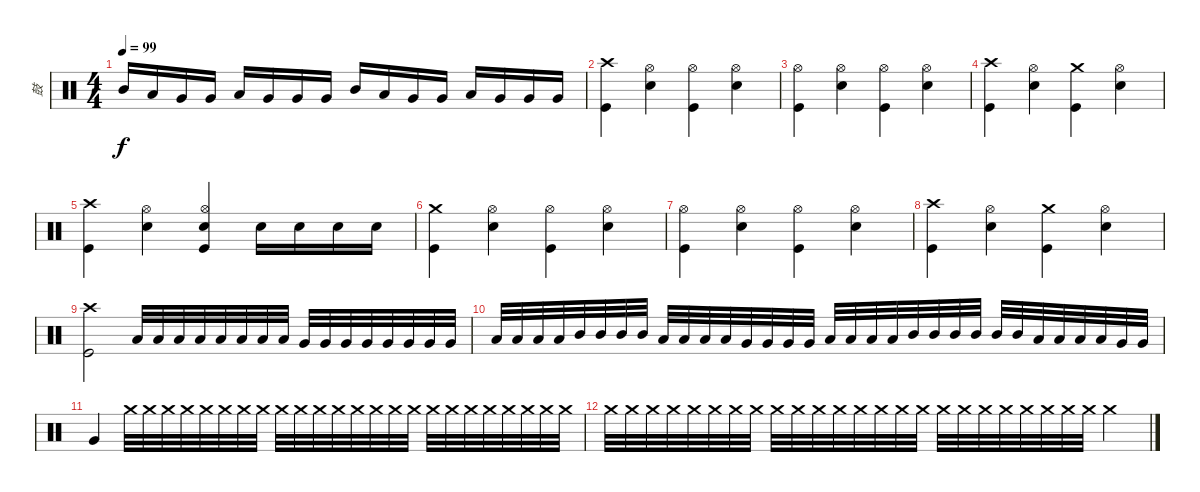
\track ("鼓" "鼓") {instrument percussion}
\staff {score}
\articulation defaults
\ts (4 4)
\tempo 99
\clef neutral
\ks c "Mid Tom (hit)".16{dy f} "Low Tom (hit)".16 "Very Low Tom (hit)".16 "Very Low Tom (hit)".16 "Low Tom (hit)".16 "Very Low Tom (hit)".16 "Very Low Tom (hit)".16 "Very Low Tom (hit)".16 "Mid Tom (hit)".16 "Low Tom (hit)".16 "Very Low Tom (hit)".16 "Very Low Tom (hit)".16 "Low Tom (hit)".16 "Very Low Tom (hit)".16 "Very Low Tom (hit)".16 "Very Low Tom (hit)".16
|
("Crash high (hit)" "Kick (hit)").4 ("Hi-Hat (open)" "Snare (hit) 2").4 ("Hi-Hat (open)" "Kick (hit)").4 ("Hi-Hat (open)" "Snare (hit) 2").4 |
("Hi-Hat (open)" "Kick (hit)").4 ("Hi-Hat (open)" "Snare (hit) 2").4 ("Hi-Hat (open)" "Kick (hit)").4 ("Hi-Hat (open)" "Snare (hit) 2").4 |
("Crash high (hit)" "Kick (hit)").4 ("Hi-Hat (open)" "Snare (hit) 2").4 ("Crash medium (hit)" "Kick (hit)").4 ("Hi-Hat (open)" "Snare (hit) 2").4 |
("Crash high (hit)" "Kick (hit)").4 ("Hi-Hat (open)" "Snare (hit) 2").4 ("Hi-Hat (open)" "Kick (hit)" "Snare (hit) 2").4 "Snare (hit) 2".16 "Snare (hit) 2".16 "Snare (hit) 2".16 "Snare (hit) 2".16 |
("Crash medium (hit)" "Kick (hit)").4 ("Hi-Hat (open)" "Snare (hit) 2").4 ("Hi-Hat (open)" "Kick (hit)").4 ("Hi-Hat (open)" "Snare (hit) 2").4 |
("Hi-Hat (open)" "Kick (hit)").4 ("Hi-Hat (open)" "Snare (hit) 2").4 ("Hi-Hat (open)" "Kick (hit)").4 ("Hi-Hat (open)" "Snare (hit) 2").4 |
("Crash high (hit)" "Kick (hit)").4 ("Hi-Hat (open)" "Snare (hit) 2").4 ("Crash medium (hit)" "Kick (hit)").4 ("Hi-Hat (open)" "Snare (hit) 2").4 |
("Crash high (hit)" "Kick (hit)").2 "Low Tom (hit)".32 "Low Tom (hit)".32 "Low Tom (hit)".32 "Low Tom (hit)".32 "Low Tom (hit)".32 "Low Tom (hit)".32 "Low Tom (hit)".32 "Low Tom (hit)".32 "Very Low Tom (hit)".32 "Very Low Tom (hit)".32 "Very Low Tom (hit)".32 "Very Low Tom (hit)".32 "Very Low Tom (hit)".32 "Very Low Tom (hit)".32 "Very Low Tom (hit)".32 "Very Low Tom (hit)".32 |
"Low Tom (hit)".32 "Low Tom (hit)".32 "Low Tom (hit)".32 "Low Tom (hit)".32 "Mid Tom (hit)".32 "Mid Tom (hit)".32 "Mid Tom (hit)".32 "Mid Tom (hit)".32 "Low Tom (hit)".32 "Low Tom (hit)".32 "Low Tom (hit)".32 "Low Tom (hit)".32 "Very Low Tom (hit)".32 "Very Low Tom (hit)".32 "Very Low Tom (hit)".32 "Very Low Tom (hit)".32 "Low Tom (hit)".32 "Low Tom (hit)".32 "Low Tom (hit)".32 "Low Tom (hit)".32 "Mid Tom (hit)".32 "Mid Tom (hit)".32 "Mid Tom (hit)".32 "Mid Tom (hit)".32 "Mid Tom (hit)".32 "Mid Tom (hit)".32 "Low Tom (hit)".32 "Low Tom (hit)".32 "Low Tom (hit)".32 "Low Tom (hit)".32 "Very Low Tom (hit)".32 "Very Low Tom (hit)".32 |
"Very Low Tom (hit)".4 "Crash medium (hit)".32{volume 0} "Crash medium (hit)".32{volume 1} "Crash medium (hit)".32{volume 2} "Crash medium (hit)".32{volume 3} "Crash medium (hit)".32{volume 4} "Crash medium (hit)".32{volume 4} "Crash medium (hit)".32{volume 5} "Crash medium (hit)".32{volume 5} "Crash medium (hit)".32{volume 6} "Crash medium (hit)".32{volume 7} "Crash medium (hit)".32{volume 8} "Crash medium (hit)".32{volume 9} "Crash medium (hit)".32{volume 10} "Crash medium (hit)".32{volume 11} "Crash medium (hit)".32{volume 12} "Crash medium (hit)".32{volume 13} "Crash medium (hit)".32{volume 14} "Crash medium (hit)".32{volume 15} "Crash medium (hit)".32{volume 15} "Crash medium (hit)".32{volume 14} "Crash medium (hit)".32{volume 14} "Crash medium (hit)".32{volume 13} "Crash medium (hit)".32{volume 13} "Crash medium (hit)".32{volume 12} |
"Crash medium (hit)".32{volume 12} "Crash medium (hit)".32 "Crash medium (hit)".32 "Crash medium (hit)".32 "Crash medium (hit)".32 "Crash medium (hit)".32 "Crash medium (hit)".32 "Crash medium (hit)".32{volume 12} "Crash medium (hit)".32{volume 11} "Crash medium (hit)".32 "Crash medium (hit)".32 "Crash medium (hit)".32{volume 11} "Crash medium (hit)".32 "Crash medium (hit)".32 "Crash medium (hit)".32{volume 10} "Crash medium (hit)".32 "Crash medium (hit)".32 "Crash medium (hit)".32 "Crash medium (hit)".32{volume 9} "Crash medium (hit)".32{volume 8} "Crash medium (hit)".32 "Crash medium (hit)".32{volume 7} "Crash medium (hit)".32{volume 6} "Crash medium (hit)".32{volume 5} "Crash medium (hit)".4{volume 3}
